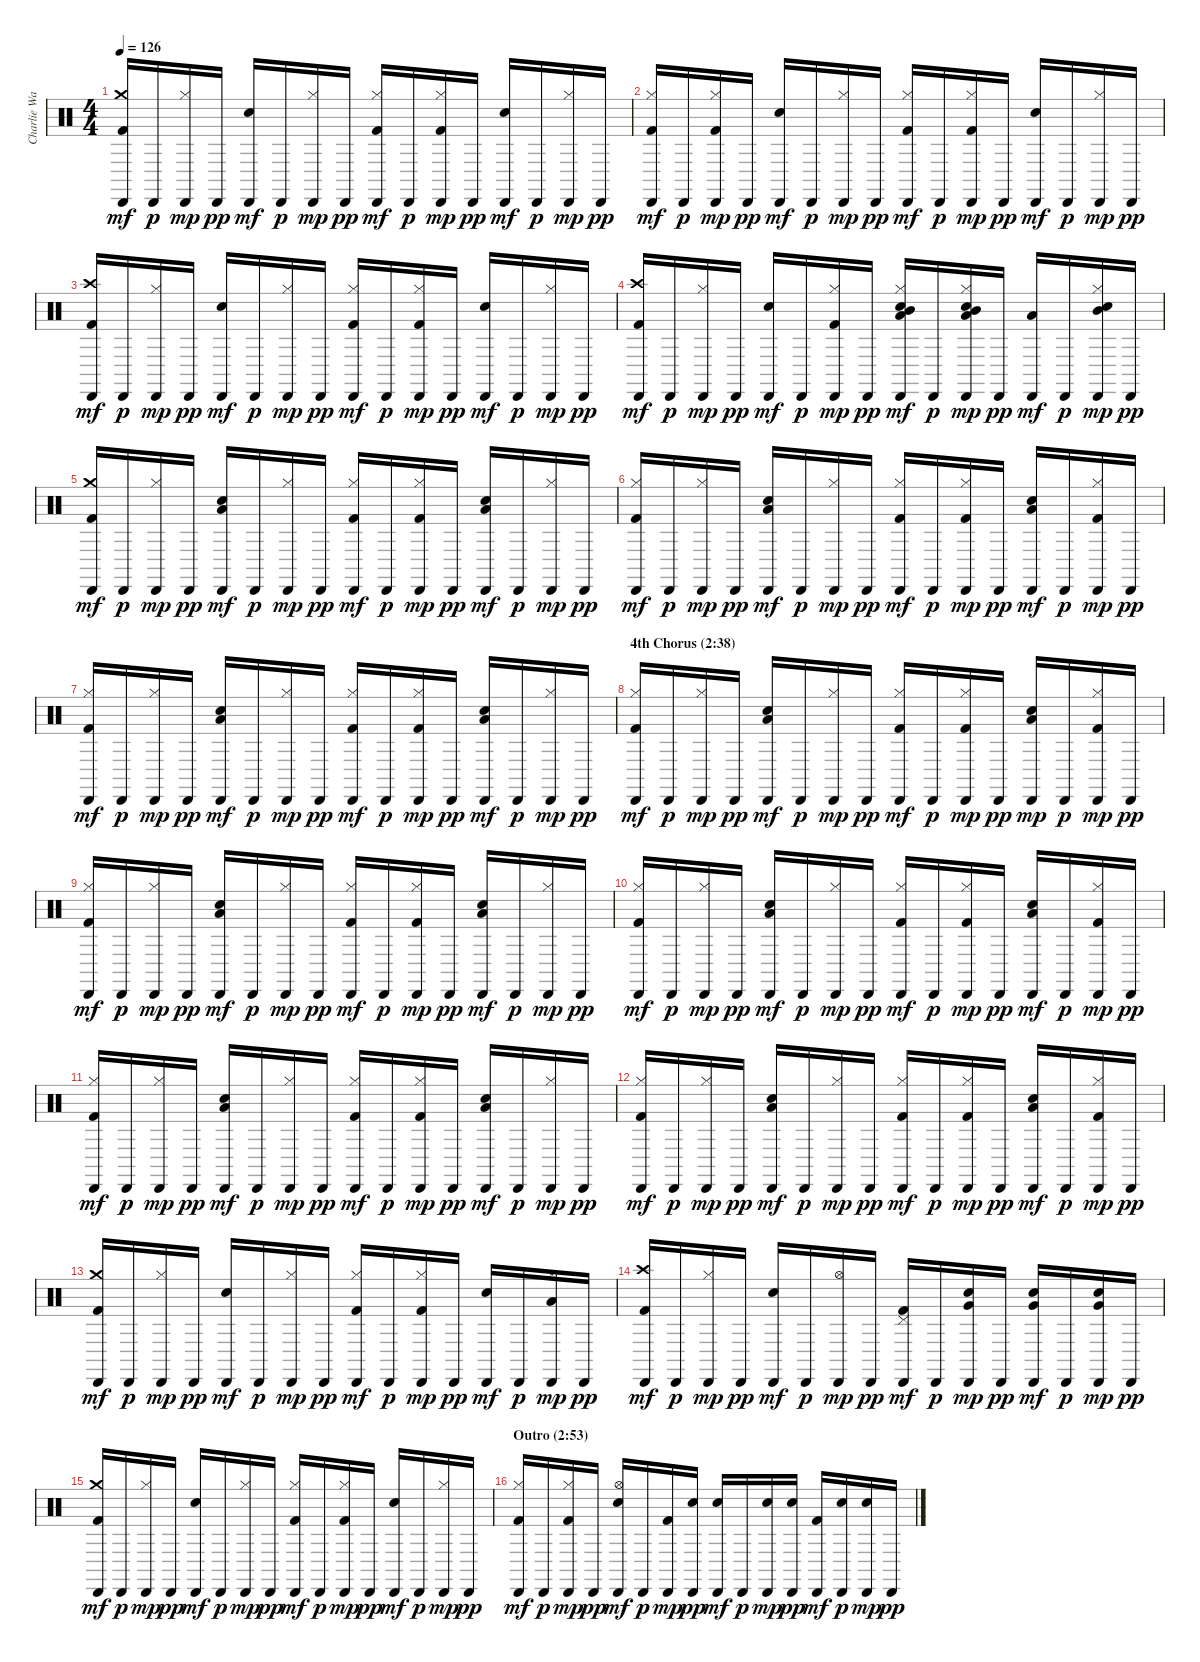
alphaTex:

\track ("Charlie Watts" "Charlie Wa") {instrument percussion}
\staff {score}
\articulation defaults
\ts (4 4)
\tempo 126
\clef neutral
\ks c
("Kick (hit) 2" "Crash medium (hit)" "Cabasa (hit)").16{dy mf} "Cabasa (hit)".16{dy p} ("Hi-Hat (closed)" "Cabasa (hit)").16{dy mp} "Cabasa (hit)".16{dy pp} ("Electric Snare (hit)" "Cabasa (hit)").16{dy mf} "Cabasa (hit)".16{dy p} ("Hi-Hat (closed)" "Cabasa (hit)").16{dy mp} "Cabasa (hit)".16{dy pp} ("Kick (hit) 2" "Hi-Hat (closed)" "Cabasa (hit)").16{dy mf} "Cabasa (hit)".16{dy p} ("Kick (hit) 2" "Hi-Hat (closed)" "Cabasa (hit)").16{dy mp} "Cabasa (hit)".16{dy pp} ("Electric Snare (hit)" "Cabasa (hit)").16{dy mf} "Cabasa (hit)".16{dy p} ("Hi-Hat (closed)" "Cabasa (hit)").16{dy mp} "Cabasa (hit)".16{dy pp} |
("Kick (hit) 2" "Hi-Hat (closed)" "Cabasa (hit)").16{dy mf} "Cabasa (hit)".16{dy p} ("Kick (hit) 2" "Hi-Hat (closed)" "Cabasa (hit)").16{dy mp} "Cabasa (hit)".16{dy pp} ("Electric Snare (hit)" "Cabasa (hit)").16{dy mf} "Cabasa (hit)".16{dy p} ("Hi-Hat (closed)" "Cabasa (hit)").16{dy mp} "Cabasa (hit)".16{dy pp} ("Kick (hit) 2" "Hi-Hat (closed)" "Cabasa (hit)").16{dy mf} "Cabasa (hit)".16{dy p} ("Kick (hit) 2" "Hi-Hat (closed)" "Cabasa (hit)").16{dy mp} "Cabasa (hit)".16{dy pp} ("Electric Snare (hit)" "Cabasa (hit)").16{dy mf} "Cabasa (hit)".16{dy p} ("Hi-Hat (closed)" "Cabasa (hit)").16{dy mp} "Cabasa (hit)".16{dy pp} |
("Kick (hit) 2" "Crash high (hit)" "Cabasa (hit)").16{dy mf} "Cabasa (hit)".16{dy p} ("Hi-Hat (closed)" "Cabasa (hit)").16{dy mp} "Cabasa (hit)".16{dy pp} ("Electric Snare (hit)" "Cabasa (hit)").16{dy mf} "Cabasa (hit)".16{dy p} ("Hi-Hat (closed)" "Cabasa (hit)").16{dy mp} "Cabasa (hit)".16{dy pp} ("Kick (hit) 2" "Hi-Hat (closed)" "Cabasa (hit)").16{dy mf} "Cabasa (hit)".16{dy p} ("Kick (hit) 2" "Hi-Hat (closed)" "Cabasa (hit)").16{dy mp} "Cabasa (hit)".16{dy pp} ("Electric Snare (hit)" "Cabasa (hit)").16{dy mf} "Cabasa (hit)".16{dy p} ("Hi-Hat (closed)" "Cabasa (hit)").16{dy mp} "Cabasa (hit)".16{dy pp} |
("Kick (hit) 2" "Crash high (hit)" "Cabasa (hit)").16{dy mf} "Cabasa (hit)".16{dy p} ("Hi-Hat (closed)" "Cabasa (hit)").16{dy mp} "Cabasa (hit)".16{dy pp} ("Electric Snare (hit)" "Cabasa (hit)").16{dy mf} "Cabasa (hit)".16{dy p} ("Kick (hit) 2" "Hi-Hat (closed)" "Cabasa (hit)").16{dy mp} "Cabasa (hit)".16{dy pp} ("Electric Snare (hit)" "Hi-Hat (closed)" "Low Tom (hit)" "Mid Tom (hit)" "Cabasa (hit)").16{dy mf} "Cabasa (hit)".16{dy p} ("Electric Snare (hit)" "Hi-Hat (closed)" "Low Tom (hit)" "Mid Tom (hit)" "Cabasa (hit)").16{dy mp} "Cabasa (hit)".16{dy pp} ("Low Tom (hit)" "Cabasa (hit)").16{dy mf} "Cabasa (hit)".16{dy p} ("Electric Snare (hit)" "Hi-Hat (closed)" "Mid Tom (hit)" "Cabasa (hit)").16{dy mp} "Cabasa (hit)".16{dy pp} |
("Kick (hit) 2" "Crash medium (hit)" "Cabasa (hit)").16{dy mf} "Cabasa (hit)".16{dy p} ("Hi-Hat (closed)" "Cabasa (hit)").16{dy mp} "Cabasa (hit)".16{dy pp} ("Electric Snare (hit)" "Low Tom (hit)" "Cabasa (hit)").16{dy mf} "Cabasa (hit)".16{dy p} ("Hi-Hat (closed)" "Cabasa (hit)").16{dy mp} "Cabasa (hit)".16{dy pp} ("Kick (hit) 2" "Hi-Hat (closed)" "Cabasa (hit)").16{dy mf} "Cabasa (hit)".16{dy p} ("Kick (hit) 2" "Hi-Hat (closed)" "Cabasa (hit)").16{dy mp} "Cabasa (hit)".16{dy pp} ("Electric Snare (hit)" "Low Tom (hit)" "Cabasa (hit)").16{dy mf} "Cabasa (hit)".16{dy p} ("Hi-Hat (closed)" "Cabasa (hit)").16{dy mp} "Cabasa (hit)".16{dy pp} |
("Kick (hit) 2" "Hi-Hat (closed)" "Cabasa (hit)").16{dy mf} "Cabasa (hit)".16{dy p} ("Hi-Hat (closed)" "Cabasa (hit)").16{dy mp} "Cabasa (hit)".16{dy pp} ("Electric Snare (hit)" "Low Tom (hit)" "Cabasa (hit)").16{dy mf} "Cabasa (hit)".16{dy p} ("Hi-Hat (closed)" "Cabasa (hit)").16{dy mp} "Cabasa (hit)".16{dy pp} ("Kick (hit) 2" "Hi-Hat (closed)" "Cabasa (hit)").16{dy mf} "Cabasa (hit)".16{dy p} ("Kick (hit) 2" "Hi-Hat (closed)" "Cabasa (hit)").16{dy mp} "Cabasa (hit)".16{dy pp} ("Electric Snare (hit)" "Low Tom (hit)" "Cabasa (hit)").16{dy mf} "Cabasa (hit)".16{dy p} ("Kick (hit) 2" "Hi-Hat (closed)" "Cabasa (hit)").16{dy mp} "Cabasa (hit)".16{dy pp} |
("Kick (hit) 2" "Hi-Hat (closed)" "Cabasa (hit)").16{dy mf} "Cabasa (hit)".16{dy p} ("Hi-Hat (closed)" "Cabasa (hit)").16{dy mp} "Cabasa (hit)".16{dy pp} ("Electric Snare (hit)" "Low Tom (hit)" "Cabasa (hit)").16{dy mf} "Cabasa (hit)".16{dy p} ("Hi-Hat (closed)" "Cabasa (hit)").16{dy mp} "Cabasa (hit)".16{dy pp} ("Kick (hit) 2" "Hi-Hat (closed)" "Cabasa (hit)").16{dy mf} "Cabasa (hit)".16{dy p} ("Kick (hit) 2" "Hi-Hat (closed)" "Cabasa (hit)").16{dy mp} "Cabasa (hit)".16{dy pp} ("Electric Snare (hit)" "Low Tom (hit)" "Cabasa (hit)").16{dy mf} "Cabasa (hit)".16{dy p} ("Hi-Hat (closed)" "Cabasa (hit)").16{dy mp} "Cabasa (hit)".16{dy pp} |
\section ("" "4th Chorus (2:38)")
("Kick (hit) 2" "Hi-Hat (closed)" "Cabasa (hit)").16{dy mf} "Cabasa (hit)".16{dy p} ("Hi-Hat (closed)" "Cabasa (hit)").16{dy mp} "Cabasa (hit)".16{dy pp} ("Electric Snare (hit)" "Low Tom (hit)" "Cabasa (hit)").16{dy mf} "Cabasa (hit)".16{dy p} ("Hi-Hat (closed)" "Cabasa (hit)").16{dy mp} "Cabasa (hit)".16{dy pp} ("Kick (hit) 2" "Hi-Hat (closed)" "Cabasa (hit)").16{dy mf} "Cabasa (hit)".16{dy p} ("Kick (hit) 2" "Hi-Hat (closed)" "Cabasa (hit)").16{dy mp} "Cabasa (hit)".16{dy pp} ("Electric Snare (hit)" "Low Tom (hit)" "Cabasa (hit)").16{dy mp} "Cabasa (hit)".16{dy p} ("Kick (hit) 2" "Hi-Hat (closed)" "Cabasa (hit)").16{dy mp} "Cabasa (hit)".16{dy pp} |
("Kick (hit) 2" "Hi-Hat (closed)" "Cabasa (hit)").16{dy mf} "Cabasa (hit)".16{dy p} ("Hi-Hat (closed)" "Cabasa (hit)").16{dy mp} "Cabasa (hit)".16{dy pp} ("Electric Snare (hit)" "Low Tom (hit)" "Cabasa (hit)").16{dy mf} "Cabasa (hit)".16{dy p} ("Hi-Hat (closed)" "Cabasa (hit)").16{dy mp} "Cabasa (hit)".16{dy pp} ("Kick (hit) 2" "Hi-Hat (closed)" "Cabasa (hit)").16{dy mf} "Cabasa (hit)".16{dy p} ("Kick (hit) 2" "Hi-Hat (closed)" "Cabasa (hit)").16{dy mp} "Cabasa (hit)".16{dy pp} ("Electric Snare (hit)" "Low Tom (hit)" "Cabasa (hit)").16{dy mf} "Cabasa (hit)".16{dy p} ("Hi-Hat (closed)" "Cabasa (hit)").16{dy mp} "Cabasa (hit)".16{dy pp} |
("Kick (hit) 2" "Hi-Hat (closed)" "Cabasa (hit)").16{dy mf} "Cabasa (hit)".16{dy p} ("Hi-Hat (closed)" "Cabasa (hit)").16{dy mp} "Cabasa (hit)".16{dy pp} ("Electric Snare (hit)" "Low Tom (hit)" "Cabasa (hit)").16{dy mf} "Cabasa (hit)".16{dy p} ("Hi-Hat (closed)" "Cabasa (hit)").16{dy mp} "Cabasa (hit)".16{dy pp} ("Kick (hit) 2" "Hi-Hat (closed)" "Cabasa (hit)").16{dy mf} "Cabasa (hit)".16{dy p} ("Kick (hit) 2" "Hi-Hat (closed)" "Cabasa (hit)").16{dy mp} "Cabasa (hit)".16{dy pp} ("Electric Snare (hit)" "Low Tom (hit)" "Cabasa (hit)").16{dy mf} "Cabasa (hit)".16{dy p} ("Kick (hit) 2" "Hi-Hat (closed)" "Cabasa (hit)").16{dy mp} "Cabasa (hit)".16{dy pp} |
("Kick (hit) 2" "Hi-Hat (closed)" "Cabasa (hit)").16{dy mf} "Cabasa (hit)".16{dy p} ("Hi-Hat (closed)" "Cabasa (hit)").16{dy mp} "Cabasa (hit)".16{dy pp} ("Electric Snare (hit)" "Low Tom (hit)" "Cabasa (hit)").16{dy mf} "Cabasa (hit)".16{dy p} ("Hi-Hat (closed)" "Cabasa (hit)").16{dy mp} "Cabasa (hit)".16{dy pp} ("Kick (hit) 2" "Hi-Hat (closed)" "Cabasa (hit)").16{dy mf} "Cabasa (hit)".16{dy p} ("Kick (hit) 2" "Hi-Hat (closed)" "Cabasa (hit)").16{dy mp} "Cabasa (hit)".16{dy pp} ("Electric Snare (hit)" "Low Tom (hit)" "Cabasa (hit)").16{dy mf} "Cabasa (hit)".16{dy p} ("Hi-Hat (closed)" "Cabasa (hit)").16{dy mp} "Cabasa (hit)".16{dy pp} |
("Kick (hit) 2" "Hi-Hat (closed)" "Cabasa (hit)").16{dy mf} "Cabasa (hit)".16{dy p} ("Hi-Hat (closed)" "Cabasa (hit)").16{dy mp} "Cabasa (hit)".16{dy pp} ("Electric Snare (hit)" "Low Tom (hit)" "Cabasa (hit)").16{dy mf} "Cabasa (hit)".16{dy p} ("Hi-Hat (closed)" "Cabasa (hit)").16{dy mp} "Cabasa (hit)".16{dy pp} ("Kick (hit) 2" "Hi-Hat (closed)" "Cabasa (hit)").16{dy mf} "Cabasa (hit)".16{dy p} ("Kick (hit) 2" "Hi-Hat (closed)" "Cabasa (hit)").16{dy mp} "Cabasa (hit)".16{dy pp} ("Electric Snare (hit)" "Low Tom (hit)" "Cabasa (hit)").16{dy mf} "Cabasa (hit)".16{dy p} ("Kick (hit) 2" "Hi-Hat (closed)" "Cabasa (hit)").16{dy mp} "Cabasa (hit)".16{dy pp} |
("Kick (hit) 2" "Crash medium (hit)" "Cabasa (hit)").16{dy mf} "Cabasa (hit)".16{dy p} ("Hi-Hat (closed)" "Cabasa (hit)").16{dy mp} "Cabasa (hit)".16{dy pp} ("Electric Snare (hit)" "Cabasa (hit)").16{dy mf} "Cabasa (hit)".16{dy p} ("Hi-Hat (closed)" "Cabasa (hit)").16{dy mp} "Cabasa (hit)".16{dy pp} ("Kick (hit) 2" "Hi-Hat (closed)" "Cabasa (hit)").16{dy mf} "Cabasa (hit)".16{dy p} ("Kick (hit) 2" "Hi-Hat (closed)" "Cabasa (hit)").16{dy mp} "Cabasa (hit)".16{dy pp} ("Electric Snare (hit)" "Cabasa (hit)").16{dy mf} "Cabasa (hit)".16{dy p} ("Hi-Hat (closed)" "Low Tom (hit)" "Cabasa (hit)").16{dy mp} "Cabasa (hit)".16{dy pp} |
("Kick (hit) 2" "Crash high (hit)" "Cabasa (hit)").16{dy mf} "Cabasa (hit)".16{dy p} ("Hi-Hat (closed)" "Cabasa (hit)").16{dy mp} "Cabasa (hit)".16{dy pp} ("Electric Snare (hit)" "Cabasa (hit)").16{dy mf} "Cabasa (hit)".16{dy p} ("Hi-Hat (open)" "Cabasa (hit)").16{dy mp} "Cabasa (hit)".16{dy pp} ("Kick (hit) 2" "Pedal Hi-Hat (hit)" "Cabasa (hit)").16{dy mf} "Cabasa (hit)".16{dy p} ("Electric Snare (hit)" "Very Low Tom (hit)" "Cabasa (hit)").16{dy mp} "Cabasa (hit)".16{dy pp} ("Electric Snare (hit)" "Very Low Tom (hit)" "Cabasa (hit)").16{dy mf} "Cabasa (hit)".16{dy p} ("Electric Snare (hit)" "Very Low Tom (hit)" "Cabasa (hit)").16{dy mp} "Cabasa (hit)".16{dy pp} |
("Kick (hit) 2" "Crash medium (hit)" "Cabasa (hit)").16{dy mf} "Cabasa (hit)".16{dy p} ("Hi-Hat (closed)" "Cabasa (hit)").16{dy mp} "Cabasa (hit)".16{dy pp} ("Electric Snare (hit)" "Cabasa (hit)").16{dy mf} "Cabasa (hit)".16{dy p} ("Hi-Hat (closed)" "Cabasa (hit)").16{dy mp} "Cabasa (hit)".16{dy pp} ("Kick (hit) 2" "Hi-Hat (closed)" "Cabasa (hit)").16{dy mf} "Cabasa (hit)".16{dy p} ("Kick (hit) 2" "Hi-Hat (closed)" "Cabasa (hit)").16{dy mp} "Cabasa (hit)".16{dy pp} ("Electric Snare (hit)" "Cabasa (hit)").16{dy mf} "Cabasa (hit)".16{dy p} ("Hi-Hat (closed)" "Cabasa (hit)").16{dy mp} "Cabasa (hit)".16{dy pp} |
\section ("" "Outro (2:53)")
("Kick (hit) 2" "Hi-Hat (closed)" "Cabasa (hit)").16{dy mf} "Cabasa (hit)".16{dy p} ("Kick (hit) 2" "Hi-Hat (closed)" "Cabasa (hit)").16{dy mp} "Cabasa (hit)".16{dy pp} ("Electric Snare (hit)" "Hi-Hat (open)" "Cabasa (hit)").16{dy mf} "Cabasa (hit)".16{dy p} ("Kick (hit) 2" "Cabasa (hit)").16{dy mp} ("Electric Snare (hit)" "Cabasa (hit)").16{dy pp} ("Electric Snare (hit)" "Cabasa (hit)").16{dy mf} "Cabasa (hit)".16{dy p} ("Electric Snare (hit)" "Cabasa (hit)").16{dy mp} ("Electric Snare (hit)" "Cabasa (hit)").16{dy pp} ("Kick (hit) 2" "Cabasa (hit)").16{dy mf} ("Electric Snare (hit)" "Cabasa (hit)").16{dy p} ("Electric Snare (hit)" "Cabasa (hit)").16{dy mp} "Cabasa (hit)".16{dy pp}
